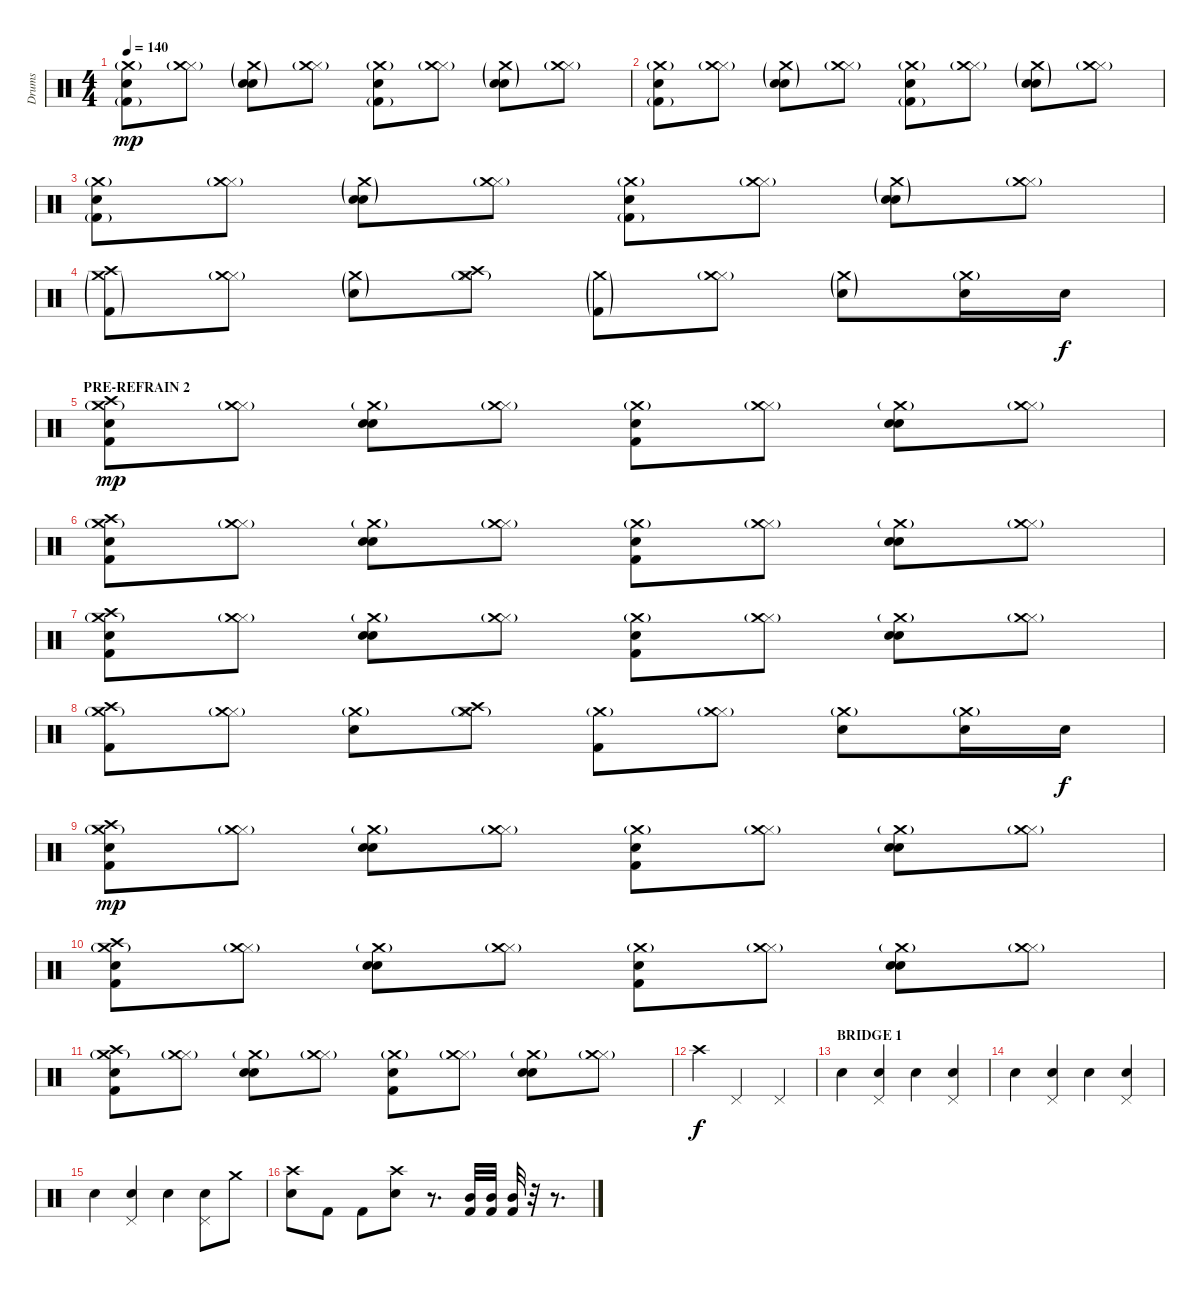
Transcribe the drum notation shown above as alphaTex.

\track ("Drums" "Drums") {instrument percussion}
\staff {score}
\articulation defaults
\ts (4 4)
\tempo 140
\clef neutral
\ks c
("Kick (hit) 2"{g} "Hand Clap (hit)" "Crash medium (hit)"{g}).8{dy mp} ("Hi-Hat (closed)" "Crash medium (hit)"{g}).8 ("Electric Snare (hit)"{g} "Hand Clap (hit)" "Crash medium (hit)"{g}).8 ("Hi-Hat (closed)" "Crash medium (hit)"{g}).8 ("Kick (hit) 2"{g} "Hand Clap (hit)" "Crash medium (hit)"{g}).8 ("Hi-Hat (closed)" "Crash medium (hit)"{g}).8 ("Electric Snare (hit)"{g} "Hand Clap (hit)" "Crash medium (hit)"{g}).8 ("Hi-Hat (closed)" "Crash medium (hit)"{g}).8 |
("Kick (hit) 2"{g} "Hand Clap (hit)" "Crash medium (hit)"{g}).8 ("Hi-Hat (closed)" "Crash medium (hit)"{g}).8 ("Electric Snare (hit)"{g} "Hand Clap (hit)" "Crash medium (hit)"{g}).8 ("Hi-Hat (closed)" "Crash medium (hit)"{g}).8 ("Kick (hit) 2"{g} "Hand Clap (hit)" "Crash medium (hit)"{g}).8 ("Hi-Hat (closed)" "Crash medium (hit)"{g}).8 ("Electric Snare (hit)"{g} "Hand Clap (hit)" "Crash medium (hit)"{g}).8 ("Hi-Hat (closed)" "Crash medium (hit)"{g}).8 |
("Kick (hit) 2"{g} "Hand Clap (hit)" "Crash medium (hit)"{g}).8 ("Hi-Hat (closed)" "Crash medium (hit)"{g}).8 ("Electric Snare (hit)"{g} "Hand Clap (hit)" "Crash medium (hit)"{g}).8 ("Hi-Hat (closed)" "Crash medium (hit)"{g}).8 ("Kick (hit) 2"{g} "Hand Clap (hit)" "Crash medium (hit)"{g}).8 ("Hi-Hat (closed)" "Crash medium (hit)"{g}).8 ("Electric Snare (hit)"{g} "Hand Clap (hit)" "Crash medium (hit)"{g}).8 ("Hi-Hat (closed)" "Crash medium (hit)"{g}).8 |
("Kick (hit) 2"{g} "Crash medium (hit)"{g} "Crash high (hit)").8 ("Hi-Hat (closed)" "Crash medium (hit)"{g}).8 ("Electric Snare (hit)"{g} "Crash medium (hit)"{g}).8 ("Hi-Hat (closed)" "Crash medium (hit)"{g} "Crash high (hit)").8 ("Kick (hit) 2"{g} "Crash medium (hit)"{g}).8 ("Hi-Hat (closed)" "Crash medium (hit)"{g}).8 ("Electric Snare (hit)"{g} "Crash medium (hit)"{g}).8 ("Electric Snare (hit)" "Crash medium (hit)"{g}).16 "Electric Snare (hit)".16{dy f} |
\section ("" "PRE-REFRAIN 2")
("Kick (hit) 2" "Hand Clap (hit)" "Crash medium (hit)"{g} "Crash high (hit)").8{dy mp} ("Hi-Hat (closed)" "Crash medium (hit)"{g}).8 ("Electric Snare (hit)" "Hand Clap (hit)" "Crash medium (hit)"{g}).8 ("Hi-Hat (closed)" "Crash medium (hit)"{g}).8 ("Kick (hit) 2" "Hand Clap (hit)" "Crash medium (hit)"{g}).8 ("Hi-Hat (closed)" "Crash medium (hit)"{g}).8 ("Electric Snare (hit)" "Hand Clap (hit)" "Crash medium (hit)"{g}).8 ("Hi-Hat (closed)" "Crash medium (hit)"{g}).8 |
("Kick (hit) 2" "Hand Clap (hit)" "Crash medium (hit)"{g} "Crash high (hit)").8 ("Hi-Hat (closed)" "Crash medium (hit)"{g}).8 ("Electric Snare (hit)" "Hand Clap (hit)" "Crash medium (hit)"{g}).8 ("Hi-Hat (closed)" "Crash medium (hit)"{g}).8 ("Kick (hit) 2" "Hand Clap (hit)" "Crash medium (hit)"{g}).8 ("Hi-Hat (closed)" "Crash medium (hit)"{g}).8 ("Electric Snare (hit)" "Hand Clap (hit)" "Crash medium (hit)"{g}).8 ("Hi-Hat (closed)" "Crash medium (hit)"{g}).8 |
("Kick (hit) 2" "Hand Clap (hit)" "Crash medium (hit)"{g} "Crash high (hit)").8 ("Hi-Hat (closed)" "Crash medium (hit)"{g}).8 ("Electric Snare (hit)" "Hand Clap (hit)" "Crash medium (hit)"{g}).8 ("Hi-Hat (closed)" "Crash medium (hit)"{g}).8 ("Kick (hit) 2" "Hand Clap (hit)" "Crash medium (hit)"{g}).8 ("Hi-Hat (closed)" "Crash medium (hit)"{g}).8 ("Electric Snare (hit)" "Hand Clap (hit)" "Crash medium (hit)"{g}).8 ("Hi-Hat (closed)" "Crash medium (hit)"{g}).8 |
("Kick (hit) 2" "Crash medium (hit)"{g} "Crash high (hit)").8 ("Hi-Hat (closed)" "Crash medium (hit)"{g}).8 ("Electric Snare (hit)" "Crash medium (hit)"{g}).8 ("Hi-Hat (closed)" "Crash medium (hit)"{g} "Crash high (hit)").8 ("Kick (hit) 2" "Crash medium (hit)"{g}).8 ("Hi-Hat (closed)" "Crash medium (hit)"{g}).8 ("Electric Snare (hit)" "Crash medium (hit)"{g}).8 ("Electric Snare (hit)" "Crash medium (hit)"{g}).16 "Electric Snare (hit)".16{dy f} |
("Kick (hit) 2" "Hand Clap (hit)" "Crash medium (hit)"{g} "Crash high (hit)").8{dy mp} ("Hi-Hat (closed)" "Crash medium (hit)"{g}).8 ("Electric Snare (hit)" "Hand Clap (hit)" "Crash medium (hit)"{g}).8 ("Hi-Hat (closed)" "Crash medium (hit)"{g}).8 ("Kick (hit) 2" "Hand Clap (hit)" "Crash medium (hit)"{g}).8 ("Hi-Hat (closed)" "Crash medium (hit)"{g}).8 ("Electric Snare (hit)" "Hand Clap (hit)" "Crash medium (hit)"{g}).8 ("Hi-Hat (closed)" "Crash medium (hit)"{g}).8 |
("Kick (hit) 2" "Hand Clap (hit)" "Crash medium (hit)"{g} "Crash high (hit)").8 ("Hi-Hat (closed)" "Crash medium (hit)"{g}).8 ("Electric Snare (hit)" "Hand Clap (hit)" "Crash medium (hit)"{g}).8 ("Hi-Hat (closed)" "Crash medium (hit)"{g}).8 ("Kick (hit) 2" "Hand Clap (hit)" "Crash medium (hit)"{g}).8 ("Hi-Hat (closed)" "Crash medium (hit)"{g}).8 ("Electric Snare (hit)" "Hand Clap (hit)" "Crash medium (hit)"{g}).8 ("Hi-Hat (closed)" "Crash medium (hit)"{g}).8 |
("Kick (hit) 2" "Hand Clap (hit)" "Crash medium (hit)"{g} "Crash high (hit)").8 ("Hi-Hat (closed)" "Crash medium (hit)"{g}).8 ("Electric Snare (hit)" "Hand Clap (hit)" "Crash medium (hit)"{g}).8 ("Hi-Hat (closed)" "Crash medium (hit)"{g}).8 ("Kick (hit) 2" "Hand Clap (hit)" "Crash medium (hit)"{g}).8 ("Hi-Hat (closed)" "Crash medium (hit)"{g}).8 ("Electric Snare (hit)" "Hand Clap (hit)" "Crash medium (hit)"{g}).8 ("Hi-Hat (closed)" "Crash medium (hit)"{g}).8 |
"Crash high (hit)".4{dy f} "Pedal Hi-Hat (hit)".2 "Pedal Hi-Hat (hit)".4 |
\section ("" "BRIDGE 1")
"Hand Clap (hit)".4 ("Hand Clap (hit)" "Pedal Hi-Hat (hit)").4 "Hand Clap (hit)".4 ("Hand Clap (hit)" "Pedal Hi-Hat (hit)").4 |
"Hand Clap (hit)".4 ("Hand Clap (hit)" "Pedal Hi-Hat (hit)").4 "Hand Clap (hit)".4 ("Hand Clap (hit)" "Pedal Hi-Hat (hit)").4 |
"Hand Clap (hit)".4 ("Hand Clap (hit)" "Pedal Hi-Hat (hit)").4 "Hand Clap (hit)".4 ("Hand Clap (hit)" "Pedal Hi-Hat (hit)").8 "Crash medium (hit)".8 |
("Crash high (hit)" "Electric Snare (hit)").8 "Kick (hit) 2".8 "Kick (hit) 2".8 ("Crash high (hit)" "Electric Snare (hit)").8 r.8{d} ("Kick (hit) 2" "Mid Tom (hit)").32 ("Kick (hit) 2" "Mid Tom (hit)").32 ("Kick (hit) 2" "Mid Tom (hit)").32 r.32 r.8{d}
